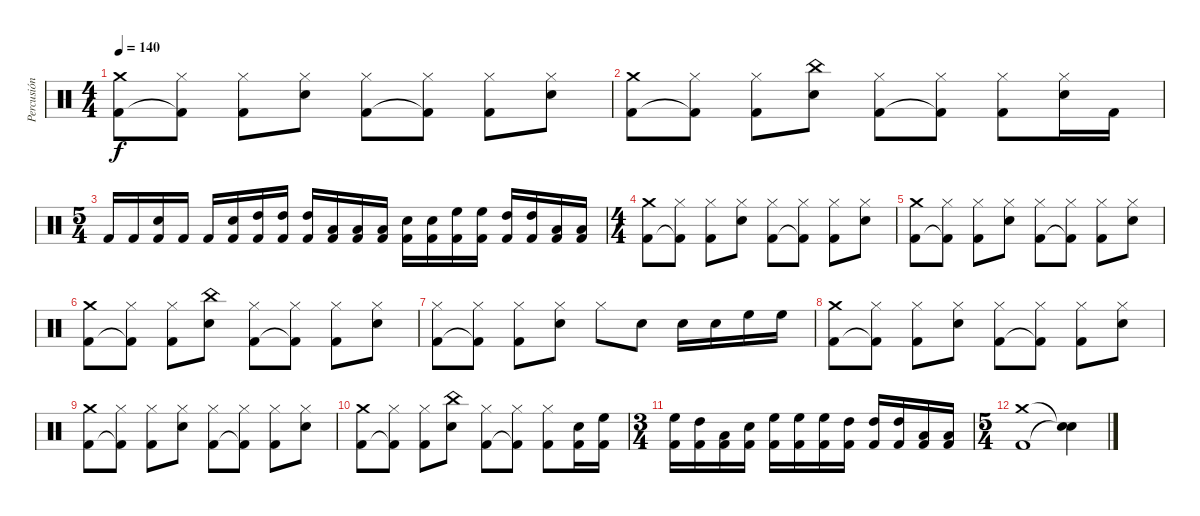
\track ("Percusión" "Percusión") {instrument percussion}
\staff {score}
\articulation defaults
\ts (4 4)
\tempo 140
\clef neutral
\ks c
("Kick (hit) 2" "Crash medium (hit)").8{dy f} ("Kick (hit) 2"{t} "Hi-Hat (closed)").8 ("Kick (hit) 2" "Hi-Hat (closed)").8 ("Electric Snare (hit)" "Hi-Hat (closed)").8 ("Kick (hit) 2" "Hi-Hat (closed)").8 ("Kick (hit) 2"{t} "Hi-Hat (closed)").8 ("Kick (hit) 2" "Hi-Hat (closed)").8 ("Electric Snare (hit)" "Hi-Hat (closed)").8 |
("Kick (hit) 2" "Crash medium (hit)").8 ("Kick (hit) 2"{t} "Hi-Hat (closed)").8 ("Kick (hit) 2" "Hi-Hat (closed)").8 ("Electric Snare (hit)" "China (hit)").8 ("Kick (hit) 2" "Hi-Hat (closed)").8 ("Kick (hit) 2"{t} "Hi-Hat (closed)").8 ("Kick (hit) 2" "Hi-Hat (closed)").8 ("Electric Snare (hit)" "Hi-Hat (closed)").16 "Kick (hit) 2".16 |
\ts (5 4)
"Kick (hit) 2".16 "Kick (hit) 2".16 ("Kick (hit) 2" "Electric Snare (hit)").16 "Kick (hit) 2".16 "Kick (hit) 2".16 ("Kick (hit) 2" "Electric Snare (hit)").16 ("Kick (hit) 2" "High Tom (hit)").16 ("Kick (hit) 2" "High Tom (hit)").16 ("Kick (hit) 2" "High Tom (hit)").16 ("Kick (hit) 2" "Low Tom (hit)").16 ("Kick (hit) 2" "Low Tom (hit)").16 ("Kick (hit) 2" "Low Tom (hit)").16 ("Kick (hit) 2" "Electric Snare (hit)").16 ("Kick (hit) 2" "Electric Snare (hit)").16 ("Kick (hit) 2" "High Floor Tom (hit)").16 ("Kick (hit) 2" "High Floor Tom (hit)").16 ("Kick (hit) 2" "High Tom (hit)").16 ("Kick (hit) 2" "High Tom (hit)").16 ("Kick (hit) 2" "Low Tom (hit)").16 ("Kick (hit) 2" "Low Tom (hit)").16 |
\ts (4 4)
("Kick (hit) 2" "Crash medium (hit)").8 ("Kick (hit) 2"{t} "Hi-Hat (closed)").8 ("Kick (hit) 2" "Hi-Hat (closed)").8 ("Electric Snare (hit)" "Hi-Hat (closed)").8 ("Kick (hit) 2" "Hi-Hat (closed)").8 ("Kick (hit) 2"{t} "Hi-Hat (closed)").8 ("Kick (hit) 2" "Hi-Hat (closed)").8 ("Electric Snare (hit)" "Hi-Hat (closed)").8 |
("Kick (hit) 2" "Crash medium (hit)").8 ("Kick (hit) 2"{t} "Hi-Hat (closed)").8 ("Kick (hit) 2" "Hi-Hat (closed)").8 ("Electric Snare (hit)" "Hi-Hat (closed)").8 ("Kick (hit) 2" "Hi-Hat (closed)").8 ("Kick (hit) 2"{t} "Hi-Hat (closed)").8 ("Kick (hit) 2" "Hi-Hat (closed)").8 ("Electric Snare (hit)" "Hi-Hat (closed)").8 |
("Kick (hit) 2" "Crash medium (hit)").8 ("Kick (hit) 2"{t} "Hi-Hat (closed)").8 ("Kick (hit) 2" "Hi-Hat (closed)").8 ("Electric Snare (hit)" "China (hit)").8 ("Kick (hit) 2" "Hi-Hat (closed)").8 ("Kick (hit) 2"{t} "Hi-Hat (closed)").8 ("Kick (hit) 2" "Hi-Hat (closed)").8 ("Electric Snare (hit)" "Hi-Hat (closed)").8 |
("Kick (hit) 2" "Hi-Hat (closed)").8 ("Kick (hit) 2"{t} "Hi-Hat (closed)").8 ("Kick (hit) 2" "Hi-Hat (closed)").8 ("Electric Snare (hit)" "Hi-Hat (closed)").8 "Hi-Hat (closed)".8 "Electric Snare (hit)".8 "Electric Snare (hit)".16 "Electric Snare (hit)".16 "High Floor Tom (hit)".16 "High Floor Tom (hit)".16 |
("Kick (hit) 2" "Crash medium (hit)").8 ("Kick (hit) 2"{t} "Hi-Hat (closed)").8 ("Kick (hit) 2" "Hi-Hat (closed)").8 ("Electric Snare (hit)" "Hi-Hat (closed)").8 ("Kick (hit) 2" "Hi-Hat (closed)").8 ("Kick (hit) 2"{t} "Hi-Hat (closed)").8 ("Kick (hit) 2" "Hi-Hat (closed)").8 ("Electric Snare (hit)" "Hi-Hat (closed)").8 |
("Kick (hit) 2" "Crash medium (hit)").8 ("Kick (hit) 2"{t} "Hi-Hat (closed)").8 ("Kick (hit) 2" "Hi-Hat (closed)").8 ("Electric Snare (hit)" "Hi-Hat (closed)").8 ("Kick (hit) 2" "Hi-Hat (closed)").8 ("Kick (hit) 2"{t} "Hi-Hat (closed)").8 ("Kick (hit) 2" "Hi-Hat (closed)").8 ("Electric Snare (hit)" "Hi-Hat (closed)").8 |
("Kick (hit) 2" "Crash medium (hit)").8 ("Kick (hit) 2"{t} "Hi-Hat (closed)").8 ("Kick (hit) 2" "Hi-Hat (closed)").8 ("Electric Snare (hit)" "China (hit)").8 ("Kick (hit) 2" "Hi-Hat (closed)").8 ("Kick (hit) 2"{t} "Hi-Hat (closed)").8 ("Kick (hit) 2" "Hi-Hat (closed)").8 ("Kick (hit) 2" "Electric Snare (hit)").16 ("Kick (hit) 2" "High Floor Tom (hit)").16 |
\ts (3 4)
("Kick (hit) 2" "High Floor Tom (hit)").16 ("Kick (hit) 2" "High Tom (hit)").16 ("Kick (hit) 2" "Low Tom (hit)").16 ("Kick (hit) 2" "Electric Snare (hit)").16 ("Kick (hit) 2" "High Floor Tom (hit)").16 ("Kick (hit) 2" "High Floor Tom (hit)").16 ("Kick (hit) 2" "High Floor Tom (hit)").16 ("Kick (hit) 2" "High Tom (hit)").16 ("Kick (hit) 2" "High Tom (hit)").16 ("Kick (hit) 2" "High Tom (hit)").16 ("Kick (hit) 2" "Low Tom (hit)").16 ("Kick (hit) 2" "Low Tom (hit)").16 |
\ts (5 4)
("Kick (hit) 2" "Crash medium (hit)").1 ("Snare (hit)"{t} "Snare (hit)"{t}).4
